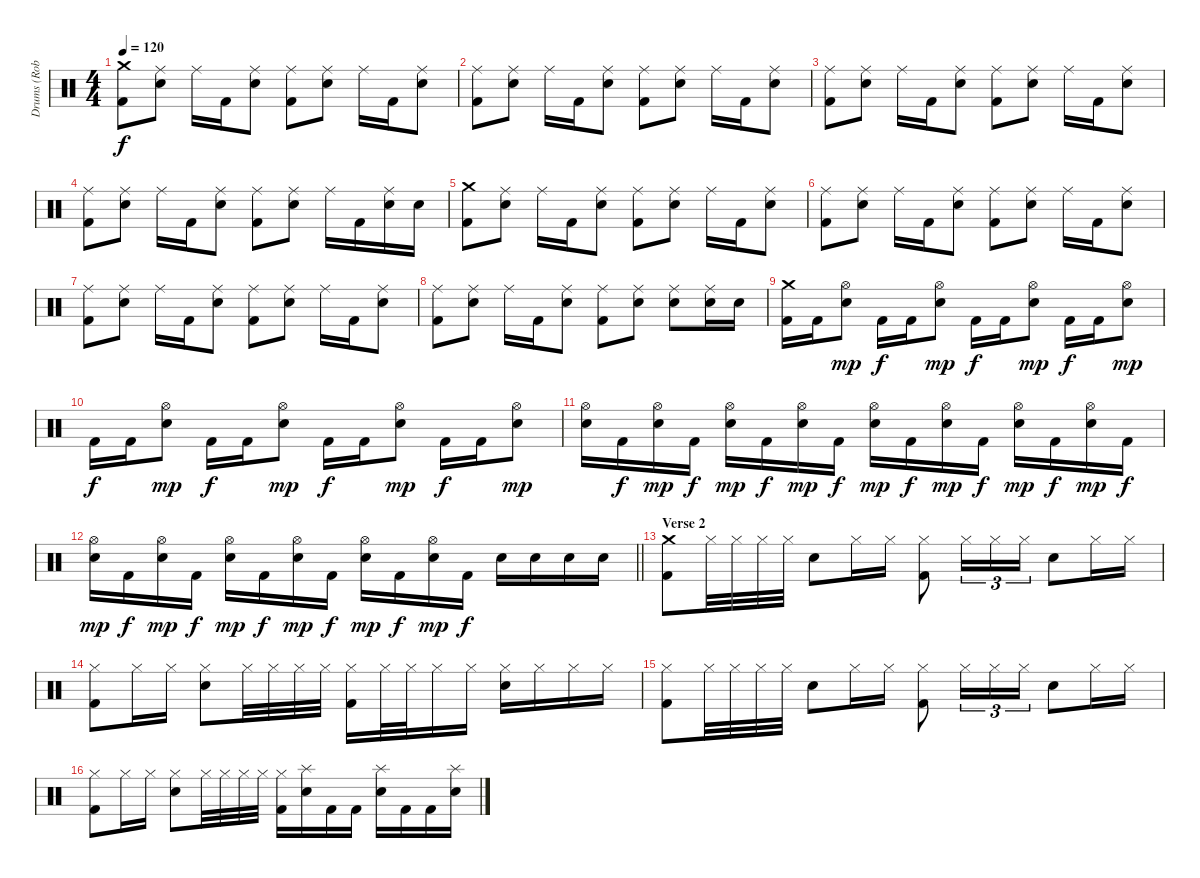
\track ("Drums (Roberto Cappa)" "Drums (Rob") {instrument percussion}
\staff {score}
\articulation defaults
\ts (4 4)
\tempo 120
\clef neutral
\ks c
("Crash medium (hit)" "Kick (hit) 2").8{dy f} ("Ride (middle)" "Electric Snare (hit)").8 "Ride (middle)".16 "Kick (hit) 2".16 ("Ride (middle)" "Electric Snare (hit)").8 ("Ride (middle)" "Kick (hit) 2").8 ("Ride (middle)" "Electric Snare (hit)").8 "Ride (middle)".16 "Kick (hit) 2".16 ("Ride (middle)" "Electric Snare (hit)").8 |
("Ride (middle)" "Kick (hit) 2").8 ("Ride (middle)" "Electric Snare (hit)").8 "Ride (middle)".16 "Kick (hit) 2".16 ("Ride (middle)" "Electric Snare (hit)").8 ("Ride (middle)" "Kick (hit) 2").8 ("Ride (middle)" "Electric Snare (hit)").8 "Ride (middle)".16 "Kick (hit) 2".16 ("Ride (middle)" "Electric Snare (hit)").8 |
("Ride (middle)" "Kick (hit) 2").8 ("Ride (middle)" "Electric Snare (hit)").8 "Ride (middle)".16 "Kick (hit) 2".16 ("Ride (middle)" "Electric Snare (hit)").8 ("Ride (middle)" "Kick (hit) 2").8 ("Ride (middle)" "Electric Snare (hit)").8 "Ride (middle)".16 "Kick (hit) 2".16 ("Ride (middle)" "Electric Snare (hit)").8 |
("Ride (middle)" "Kick (hit) 2").8 ("Ride (middle)" "Electric Snare (hit)").8 "Ride (middle)".16 "Kick (hit) 2".16 ("Ride (middle)" "Electric Snare (hit)").8 ("Ride (middle)" "Kick (hit) 2").8 ("Ride (middle)" "Electric Snare (hit)").8 "Ride (middle)".16 "Kick (hit) 2".16 ("Ride (middle)" "Electric Snare (hit)").16 "Electric Snare (hit)".16 |
("Crash medium (hit)" "Kick (hit) 2").8 ("Ride (middle)" "Electric Snare (hit)").8 "Ride (middle)".16 "Kick (hit) 2".16 ("Ride (middle)" "Electric Snare (hit)").8 ("Ride (middle)" "Kick (hit) 2").8 ("Ride (middle)" "Electric Snare (hit)").8 "Ride (middle)".16 "Kick (hit) 2".16 ("Ride (middle)" "Electric Snare (hit)").8 |
("Ride (middle)" "Kick (hit) 2").8 ("Ride (middle)" "Electric Snare (hit)").8 "Ride (middle)".16 "Kick (hit) 2".16 ("Ride (middle)" "Electric Snare (hit)").8 ("Ride (middle)" "Kick (hit) 2").8 ("Ride (middle)" "Electric Snare (hit)").8 "Ride (middle)".16 "Kick (hit) 2".16 ("Ride (middle)" "Electric Snare (hit)").8 |
("Ride (middle)" "Kick (hit) 2").8 ("Ride (middle)" "Electric Snare (hit)").8 "Ride (middle)".16 "Kick (hit) 2".16 ("Ride (middle)" "Electric Snare (hit)").8 ("Ride (middle)" "Kick (hit) 2").8 ("Ride (middle)" "Electric Snare (hit)").8 "Ride (middle)".16 "Kick (hit) 2".16 ("Ride (middle)" "Electric Snare (hit)").8 |
("Ride (middle)" "Kick (hit) 2").8 ("Ride (middle)" "Electric Snare (hit)").8 "Ride (middle)".16 "Kick (hit) 2".16 ("Ride (middle)" "Electric Snare (hit)").8 ("Ride (middle)" "Kick (hit) 2").8 ("Ride (middle)" "Electric Snare (hit)").8 ("Ride (middle)" "Electric Snare (hit)").8 ("Ride (middle)" "Electric Snare (hit)").16 "Electric Snare (hit)".16 |
("Crash medium (hit)" "Kick (hit) 2").16 "Kick (hit) 2".16 ("Hi-Hat (open)" "Electric Snare (hit)").8{dy mp} "Kick (hit) 2".16{dy f} "Kick (hit) 2".16 ("Hi-Hat (open)" "Electric Snare (hit)").8{dy mp} "Kick (hit) 2".16{dy f} "Kick (hit) 2".16 ("Hi-Hat (open)" "Electric Snare (hit)").8{dy mp} "Kick (hit) 2".16{dy f} "Kick (hit) 2".16 ("Hi-Hat (open)" "Electric Snare (hit)").8{dy mp} |
"Kick (hit) 2".16{dy f} "Kick (hit) 2".16 ("Hi-Hat (open)" "Electric Snare (hit)").8{dy mp} "Kick (hit) 2".16{dy f} "Kick (hit) 2".16 ("Hi-Hat (open)" "Electric Snare (hit)").8{dy mp} "Kick (hit) 2".16{dy f} "Kick (hit) 2".16 ("Hi-Hat (open)" "Electric Snare (hit)").8{dy mp} "Kick (hit) 2".16{dy f} "Kick (hit) 2".16 ("Hi-Hat (open)" "Electric Snare (hit)").8{dy mp} |
("Hi-Hat (open)" "Electric Snare (hit)").16 "Kick (hit) 2".16{dy f} ("Hi-Hat (open)" "Electric Snare (hit)").16{dy mp} "Kick (hit) 2".16{dy f} ("Hi-Hat (open)" "Electric Snare (hit)").16{dy mp} "Kick (hit) 2".16{dy f} ("Hi-Hat (open)" "Electric Snare (hit)").16{dy mp} "Kick (hit) 2".16{dy f} ("Hi-Hat (open)" "Electric Snare (hit)").16{dy mp} "Kick (hit) 2".16{dy f} ("Hi-Hat (open)" "Electric Snare (hit)").16{dy mp} "Kick (hit) 2".16{dy f} ("Hi-Hat (open)" "Electric Snare (hit)").16{dy mp} "Kick (hit) 2".16{dy f} ("Hi-Hat (open)" "Electric Snare (hit)").16{dy mp} "Kick (hit) 2".16{dy f} |
\barLineRight lightlight
("Hi-Hat (open)" "Electric Snare (hit)").16{dy mp} "Kick (hit) 2".16{dy f} ("Hi-Hat (open)" "Electric Snare (hit)").16{dy mp} "Kick (hit) 2".16{dy f} ("Hi-Hat (open)" "Electric Snare (hit)").16{dy mp} "Kick (hit) 2".16{dy f} ("Hi-Hat (open)" "Electric Snare (hit)").16{dy mp} "Kick (hit) 2".16{dy f} ("Hi-Hat (open)" "Electric Snare (hit)").16{dy mp} "Kick (hit) 2".16{dy f} ("Hi-Hat (open)" "Electric Snare (hit)").16{dy mp} "Kick (hit) 2".16{dy f} "Electric Snare (hit)".16 "Electric Snare (hit)".16 "Electric Snare (hit)".16 "Electric Snare (hit)".16 |
\section ("" "Verse 2")
("Crash medium (hit)" "Kick (hit) 2").8 "Hi-Hat (closed)".32 "Hi-Hat (closed)".32 "Hi-Hat (closed)".32 "Hi-Hat (closed)".32 "Electric Snare (hit)".8 "Hi-Hat (closed)".16 "Hi-Hat (closed)".16 ("Hi-Hat (closed)" "Kick (hit) 2").8 "Hi-Hat (closed)".16{tu (3 2)} "Hi-Hat (closed)".16{tu (3 2)} "Hi-Hat (closed)".16{tu (3 2)} "Electric Snare (hit)".8 "Hi-Hat (closed)".16 "Hi-Hat (closed)".16 |
("Hi-Hat (closed)" "Kick (hit) 2").8 "Hi-Hat (closed)".16 "Hi-Hat (closed)".16 ("Hi-Hat (closed)" "Electric Snare (hit)").8 "Hi-Hat (closed)".32 "Hi-Hat (closed)".32 "Hi-Hat (closed)".32 "Hi-Hat (closed)".32 ("Hi-Hat (closed)" "Kick (hit) 2").16 "Hi-Hat (closed)".32 "Hi-Hat (closed)".32 "Hi-Hat (closed)".16 "Hi-Hat (closed)".16 ("Hi-Hat (closed)" "Electric Snare (hit)").16 "Hi-Hat (closed)".16 "Hi-Hat (closed)".16 "Hi-Hat (closed)".16 |
("Hi-Hat (closed)" "Kick (hit) 2").8 "Hi-Hat (closed)".32 "Hi-Hat (closed)".32 "Hi-Hat (closed)".32 "Hi-Hat (closed)".32 "Electric Snare (hit)".8 "Hi-Hat (closed)".16 "Hi-Hat (closed)".16 ("Hi-Hat (closed)" "Kick (hit) 2").8 "Hi-Hat (closed)".16{tu (3 2)} "Hi-Hat (closed)".16{tu (3 2)} "Hi-Hat (closed)".16{tu (3 2)} "Electric Snare (hit)".8 "Hi-Hat (closed)".16 "Hi-Hat (closed)".16 |
("Hi-Hat (closed)" "Kick (hit) 2").8 "Hi-Hat (closed)".16 "Hi-Hat (closed)".16 ("Hi-Hat (closed)" "Electric Snare (hit)").8 "Hi-Hat (closed)".32 "Hi-Hat (closed)".32 "Hi-Hat (closed)".32 "Hi-Hat (closed)".32 ("Hi-Hat (closed)" "Kick (hit) 2").16 ("Splash (hit)" "Electric Snare (hit)").16 "Kick (hit) 2".16 "Kick (hit) 2".16 ("Splash (hit)" "Electric Snare (hit)").16 "Kick (hit) 2".16 "Kick (hit) 2".16 ("Splash (hit)" "Electric Snare (hit)").16
